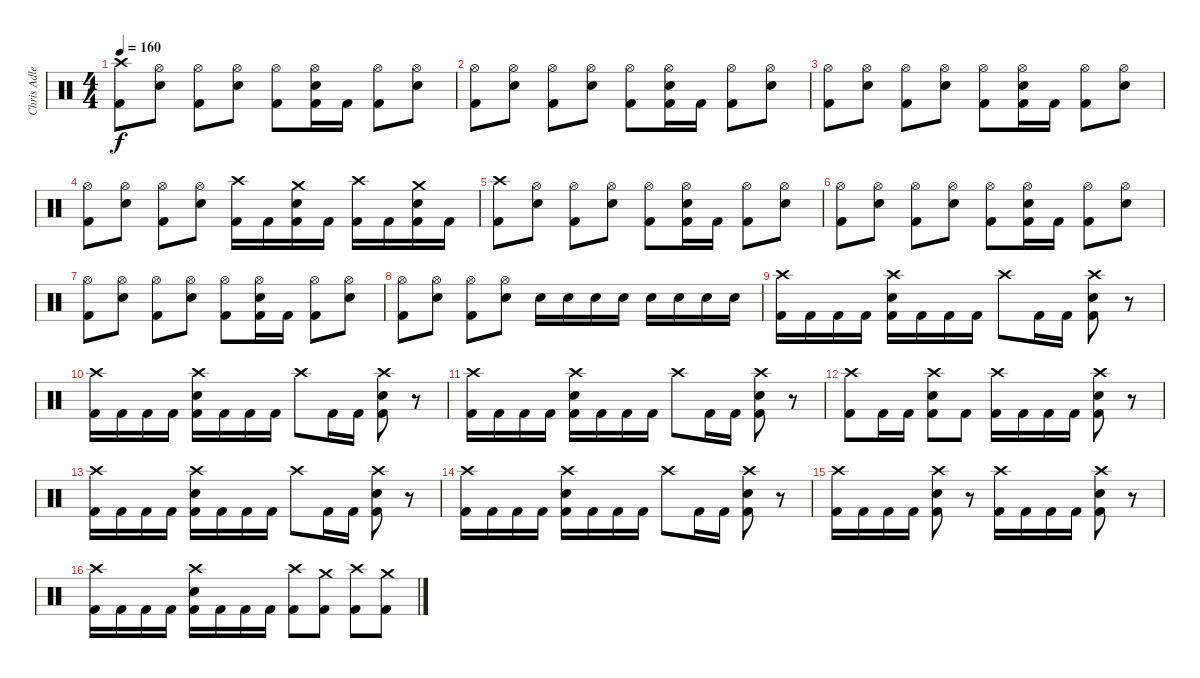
\track ("Chris Adler" "Chris Adle") {instrument percussion}
\staff {score}
\articulation defaults
\ts (4 4)
\tempo 160
\clef neutral
\ks c
("Crash high (hit)" "Kick (hit) 2").8{dy f} ("Hi-Hat (open)" "Electric Snare (hit)").8 ("Hi-Hat (open)" "Kick (hit) 2").8 ("Hi-Hat (open)" "Electric Snare (hit)").8 ("Hi-Hat (open)" "Kick (hit) 2").8 ("Hi-Hat (open)" "Electric Snare (hit)" "Kick (hit) 2").16 "Kick (hit) 2".16 ("Hi-Hat (open)" "Kick (hit) 2").8 ("Hi-Hat (open)" "Electric Snare (hit)").8 |
("Hi-Hat (open)" "Kick (hit) 2").8 ("Hi-Hat (open)" "Electric Snare (hit)").8 ("Hi-Hat (open)" "Kick (hit) 2").8 ("Hi-Hat (open)" "Electric Snare (hit)").8 ("Hi-Hat (open)" "Kick (hit) 2").8 ("Hi-Hat (open)" "Electric Snare (hit)" "Kick (hit) 2").16 "Kick (hit) 2".16 ("Hi-Hat (open)" "Kick (hit) 2").8 ("Hi-Hat (open)" "Electric Snare (hit)").8 |
("Hi-Hat (open)" "Kick (hit) 2").8 ("Hi-Hat (open)" "Electric Snare (hit)").8 ("Hi-Hat (open)" "Kick (hit) 2").8 ("Hi-Hat (open)" "Electric Snare (hit)").8 ("Hi-Hat (open)" "Kick (hit) 2").8 ("Hi-Hat (open)" "Electric Snare (hit)" "Kick (hit) 2").16 "Kick (hit) 2".16 ("Hi-Hat (open)" "Kick (hit) 2").8 ("Hi-Hat (open)" "Electric Snare (hit)").8 |
("Hi-Hat (open)" "Kick (hit) 2").8 ("Hi-Hat (open)" "Electric Snare (hit)").8 ("Hi-Hat (open)" "Kick (hit) 2").8 ("Hi-Hat (open)" "Electric Snare (hit)").8 ("Crash high (hit)" "Kick (hit) 2").16 "Kick (hit) 2".16 ("Crash medium (hit)" "Electric Snare (hit)" "Kick (hit) 2").16 "Kick (hit) 2".16 ("Crash high (hit)" "Kick (hit) 2").16 "Kick (hit) 2".16 ("Crash medium (hit)" "Electric Snare (hit)" "Kick (hit) 2").16 "Kick (hit) 2".16 |
("Crash high (hit)" "Kick (hit) 2").8 ("Hi-Hat (open)" "Electric Snare (hit)").8 ("Hi-Hat (open)" "Kick (hit) 2").8 ("Hi-Hat (open)" "Electric Snare (hit)").8 ("Hi-Hat (open)" "Kick (hit) 2").8 ("Hi-Hat (open)" "Electric Snare (hit)" "Kick (hit) 2").16 "Kick (hit) 2".16 ("Hi-Hat (open)" "Kick (hit) 2").8 ("Hi-Hat (open)" "Electric Snare (hit)").8 |
("Hi-Hat (open)" "Kick (hit) 2").8 ("Hi-Hat (open)" "Electric Snare (hit)").8 ("Hi-Hat (open)" "Kick (hit) 2").8 ("Hi-Hat (open)" "Electric Snare (hit)").8 ("Hi-Hat (open)" "Kick (hit) 2").8 ("Hi-Hat (open)" "Electric Snare (hit)" "Kick (hit) 2").16 "Kick (hit) 2".16 ("Hi-Hat (open)" "Kick (hit) 2").8 ("Hi-Hat (open)" "Electric Snare (hit)").8 |
("Hi-Hat (open)" "Kick (hit) 2").8 ("Hi-Hat (open)" "Electric Snare (hit)").8 ("Hi-Hat (open)" "Kick (hit) 2").8 ("Hi-Hat (open)" "Electric Snare (hit)").8 ("Hi-Hat (open)" "Kick (hit) 2").8 ("Hi-Hat (open)" "Electric Snare (hit)" "Kick (hit) 2").16 "Kick (hit) 2".16 ("Hi-Hat (open)" "Kick (hit) 2").8 ("Hi-Hat (open)" "Electric Snare (hit)").8 |
("Hi-Hat (open)" "Kick (hit) 2").8 ("Hi-Hat (open)" "Electric Snare (hit)").8 ("Hi-Hat (open)" "Kick (hit) 2").8 ("Hi-Hat (open)" "Electric Snare (hit)").8 "Electric Snare (hit)".16 "Electric Snare (hit)".16 "Electric Snare (hit)".16 "Electric Snare (hit)".16 "Electric Snare (hit)".16 "Electric Snare (hit)".16 "Electric Snare (hit)".16 "Electric Snare (hit)".16 |
("Crash high (hit)" "Kick (hit) 2").16 "Kick (hit) 2".16 "Kick (hit) 2".16 "Kick (hit) 2".16 ("Crash high (hit)" "Electric Snare (hit)" "Kick (hit) 2").16 "Kick (hit) 2".16 "Kick (hit) 2".16 "Kick (hit) 2".16 "Crash high (hit)".8 "Kick (hit) 2".16 "Kick (hit) 2".16 ("Crash high (hit)" "Electric Snare (hit)" "Kick (hit) 2").8 r.8 |
("Crash high (hit)" "Kick (hit) 2").16 "Kick (hit) 2".16 "Kick (hit) 2".16 "Kick (hit) 2".16 ("Crash high (hit)" "Electric Snare (hit)" "Kick (hit) 2").16 "Kick (hit) 2".16 "Kick (hit) 2".16 "Kick (hit) 2".16 "Crash high (hit)".8 "Kick (hit) 2".16 "Kick (hit) 2".16 ("Crash high (hit)" "Electric Snare (hit)" "Kick (hit) 2").8 r.8 |
("Crash high (hit)" "Kick (hit) 2").16 "Kick (hit) 2".16 "Kick (hit) 2".16 "Kick (hit) 2".16 ("Crash high (hit)" "Electric Snare (hit)" "Kick (hit) 2").16 "Kick (hit) 2".16 "Kick (hit) 2".16 "Kick (hit) 2".16 "Crash high (hit)".8 "Kick (hit) 2".16 "Kick (hit) 2".16 ("Crash high (hit)" "Electric Snare (hit)" "Kick (hit) 2").8 r.8 |
("Crash high (hit)" "Kick (hit) 2").8 "Kick (hit) 2".16 "Kick (hit) 2".16 ("Crash high (hit)" "Electric Snare (hit)" "Kick (hit) 2").8 "Kick (hit) 2".8 ("Crash high (hit)" "Kick (hit) 2").16 "Kick (hit) 2".16 "Kick (hit) 2".16 "Kick (hit) 2".16 ("Crash high (hit)" "Electric Snare (hit)" "Kick (hit) 2").8 r.8 |
("Crash high (hit)" "Kick (hit) 2").16 "Kick (hit) 2".16 "Kick (hit) 2".16 "Kick (hit) 2".16 ("Crash high (hit)" "Electric Snare (hit)" "Kick (hit) 2").16 "Kick (hit) 2".16 "Kick (hit) 2".16 "Kick (hit) 2".16 "Crash high (hit)".8 "Kick (hit) 2".16 "Kick (hit) 2".16 ("Crash high (hit)" "Electric Snare (hit)" "Kick (hit) 2").8 r.8 |
("Crash high (hit)" "Kick (hit) 2").16 "Kick (hit) 2".16 "Kick (hit) 2".16 "Kick (hit) 2".16 ("Crash high (hit)" "Electric Snare (hit)" "Kick (hit) 2").16 "Kick (hit) 2".16 "Kick (hit) 2".16 "Kick (hit) 2".16 "Crash high (hit)".8 "Kick (hit) 2".16 "Kick (hit) 2".16 ("Crash high (hit)" "Electric Snare (hit)" "Kick (hit) 2").8 r.8 |
("Crash high (hit)" "Kick (hit) 2").16 "Kick (hit) 2".16 "Kick (hit) 2".16 "Kick (hit) 2".16 ("Crash high (hit)" "Electric Snare (hit)" "Kick (hit) 2").8 r.8 ("Crash high (hit)" "Kick (hit) 2").16 "Kick (hit) 2".16 "Kick (hit) 2".16 "Kick (hit) 2".16 ("Crash high (hit)" "Electric Snare (hit)" "Kick (hit) 2").8 r.8 |
("Crash high (hit)" "Kick (hit) 2").16 "Kick (hit) 2".16 "Kick (hit) 2".16 "Kick (hit) 2".16 ("Crash high (hit)" "Electric Snare (hit)" "Kick (hit) 2").16 "Kick (hit) 2".16 "Kick (hit) 2".16 "Kick (hit) 2".16 ("Crash high (hit)" "Kick (hit) 2").8 ("Crash medium (hit)" "Kick (hit) 2").8 ("Crash high (hit)" "Kick (hit) 2").8 ("Crash medium (hit)" "Kick (hit) 2").8
